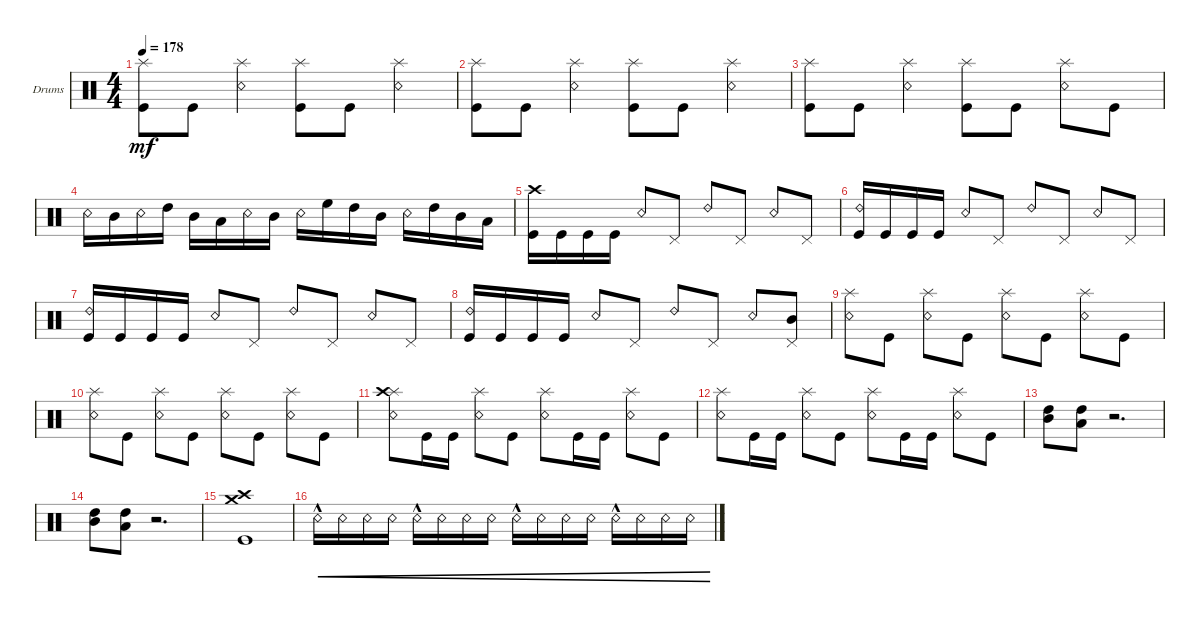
\defaultSystemsLayout 4
\bracketExtendMode groupsimilarinstruments
\firstSystemTrackNameOrientation horizontal
\otherSystemsTrackNameOrientation horizontal
\track ("Drumkit" "Drums") {instrument percussion}
\staff {score}
\articulation defaults
\ts (4 4)
\tempo 178
\clef neutral
\ks c
("Kick (hit)" "Splash (hit)").8{dy mf} "Kick (hit)".8 ("Splash (hit)" "Snare (rim shot)").4 ("Kick (hit)" "Splash (hit)").8 "Kick (hit)".8 ("Snare (rim shot)" "Splash (hit)").4 |
("Kick (hit)" "Splash (hit)").8 "Kick (hit)".8 ("Splash (hit)" "Snare (rim shot)").4 ("Kick (hit)" "Splash (hit)").8 "Kick (hit)".8 ("Snare (rim shot)" "Splash (hit)").4 |
("Kick (hit)" "Splash (hit)").8 "Kick (hit)".8 ("Splash (hit)" "Snare (rim shot)").4 ("Kick (hit)" "Splash (hit)").8 "Kick (hit)".8 ("Snare (rim shot)" "Splash (hit)").8 "Kick (hit)".8 |
"Snare (rim shot)".16 "Mid Tom (hit)".16 "Snare (rim shot)".16 "High Tom (hit)".16 "Mid Tom (hit)".16 "Low Tom (hit)".16 "Snare (rim shot)".16 "Mid Tom (hit)".16 "Snare (rim shot)".16 "High Floor Tom (hit)".16 "High Tom (hit)".16 "Mid Tom (hit)".16 "Snare (rim shot)".16 "High Tom (hit)".16 "Mid Tom (hit)".16 "Low Tom (hit)".16 |
("Kick (hit)" "Crash high (hit)").16 "Kick (hit)".16 "Kick (hit)".16 "Kick (hit)".16 "Snare (rim shot)".8 "Pedal Hi-Hat (hit)".8 "Ride (bell) 2".8 "Pedal Hi-Hat (hit)".8 "Snare (rim shot)".8 "Pedal Hi-Hat (hit)".8 |
("Kick (hit)" "Ride (bell) 2").16 "Kick (hit)".16 "Kick (hit)".16 "Kick (hit)".16 "Snare (rim shot)".8 "Pedal Hi-Hat (hit)".8 "Ride (bell) 2".8 "Pedal Hi-Hat (hit)".8 "Snare (rim shot)".8 "Pedal Hi-Hat (hit)".8 |
("Kick (hit)" "Ride (bell) 2").16 "Kick (hit)".16 "Kick (hit)".16 "Kick (hit)".16 "Snare (rim shot)".8 "Pedal Hi-Hat (hit)".8 "Ride (bell) 2".8 "Pedal Hi-Hat (hit)".8 "Snare (rim shot)".8 "Pedal Hi-Hat (hit)".8 |
("Kick (hit)" "Ride (bell) 2").16 "Kick (hit)".16 "Kick (hit)".16 "Kick (hit)".16 "Snare (rim shot)".8 "Pedal Hi-Hat (hit)".8 "Ride (bell) 2".8 "Pedal Hi-Hat (hit)".8 "Snare (rim shot)".8 ("Pedal Hi-Hat (hit)" "Mid Tom (hit)").8 |
("Snare (rim shot)" "Splash (hit)").8 "Kick (hit)".8 ("Snare (rim shot)" "Splash (hit)").8 "Kick (hit)".8 ("Snare (rim shot)" "Splash (hit)").8 "Kick (hit)".8 ("Snare (rim shot)" "Splash (hit)").8 "Kick (hit)".8 |
("Snare (rim shot)" "Splash (hit)").8 "Kick (hit)".8 ("Snare (rim shot)" "Splash (hit)").8 "Kick (hit)".8 ("Snare (rim shot)" "Splash (hit)").8 "Kick (hit)".8 ("Snare (rim shot)" "Splash (hit)").8 "Kick (hit)".8 |
("Snare (rim shot)" "Splash (hit)" "Crash high (hit)").8 "Kick (hit)".16 "Kick (hit)".16 ("Snare (rim shot)" "Splash (hit)").8 "Kick (hit)".8 ("Snare (rim shot)" "Splash (hit)").8 "Kick (hit)".16 "Kick (hit)".16 ("Snare (rim shot)" "Splash (hit)").8 "Kick (hit)".8 |
("Snare (rim shot)" "Splash (hit)").8 "Kick (hit)".16 "Kick (hit)".16 ("Snare (rim shot)" "Splash (hit)").8 "Kick (hit)".8 ("Snare (rim shot)" "Splash (hit)").8 "Kick (hit)".16 "Kick (hit)".16 ("Snare (rim shot)" "Splash (hit)").8 "Kick (hit)".8 |
("Mid Tom (hit)" "High Tom (hit)").8 ("High Tom (hit)" "Low Tom (hit)").8 r.2{d} |
("Mid Tom (hit)" "High Tom (hit)").8 ("High Tom (hit)" "Low Tom (hit)").8 r.2{d} |
("Kick (hit)" "Crash medium (hit)" "Crash high (hit)").1 |
"Snare (rim shot)"{hac}.16{cre} "Snare (rim shot)".16{cre} "Snare (rim shot)".16{cre} "Snare (rim shot)".16{cre} "Snare (rim shot)"{hac}.16{cre} "Snare (rim shot)".16{cre} "Snare (rim shot)".16{cre} "Snare (rim shot)".16{cre} "Snare (rim shot)"{hac}.16{cre} "Snare (rim shot)".16{cre} "Snare (rim shot)".16{cre} "Snare (rim shot)".16{cre} "Snare (rim shot)"{hac}.16{cre} "Snare (rim shot)".16{cre} "Snare (rim shot)".16{cre} "Snare (rim shot)".16{cre}
